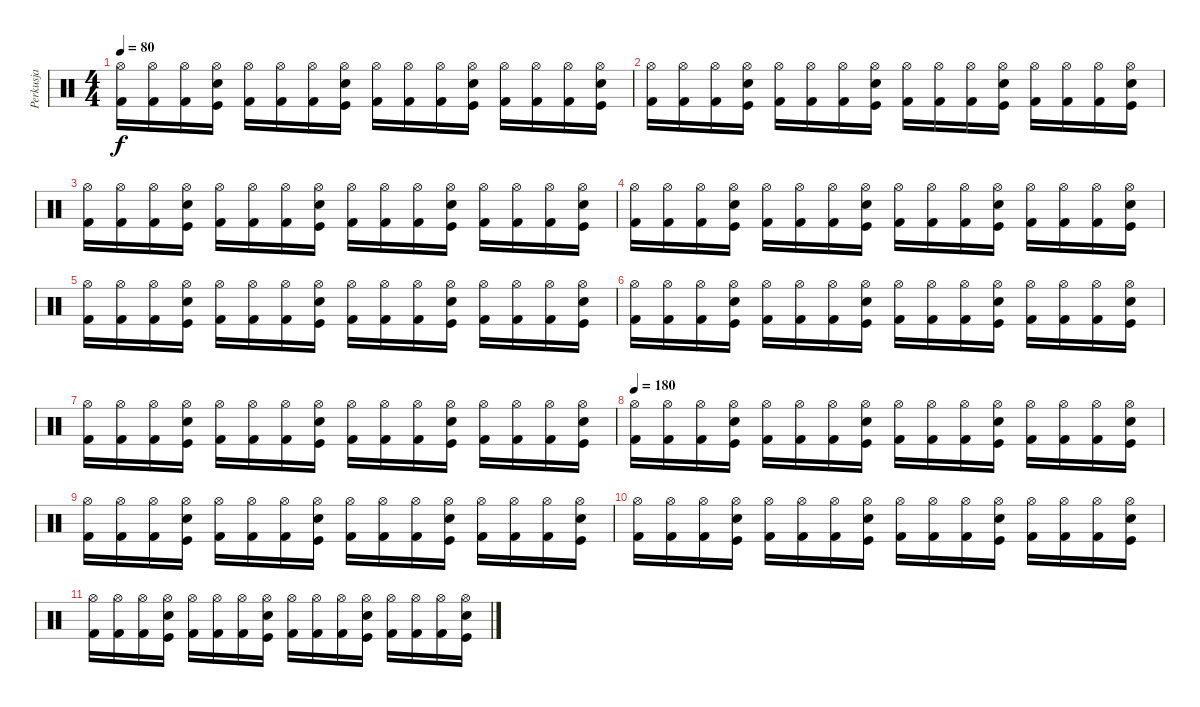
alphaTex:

\track ("Perkusja" "Perkusja") {instrument percussion}
\staff {score}
\articulation defaults
\ts (4 4)
\tempo 80
\clef neutral
\ks c
("Kick (hit) 2" "Hi-Hat (open)").16{dy f} ("Kick (hit) 2" "Hi-Hat (open)").16 ("Kick (hit) 2" "Hi-Hat (open)").16 ("Snare (hit) 2" "Hi-Hat (open)" "Kick (hit)").16 ("Kick (hit) 2" "Hi-Hat (open)").16 ("Kick (hit) 2" "Hi-Hat (open)").16 ("Kick (hit) 2" "Hi-Hat (open)").16 ("Snare (hit) 2" "Hi-Hat (open)" "Kick (hit)").16 ("Kick (hit) 2" "Hi-Hat (open)").16 ("Kick (hit) 2" "Hi-Hat (open)").16 ("Kick (hit) 2" "Hi-Hat (open)").16 ("Snare (hit) 2" "Hi-Hat (open)" "Kick (hit)").16 ("Kick (hit) 2" "Hi-Hat (open)").16 ("Kick (hit) 2" "Hi-Hat (open)").16 ("Kick (hit) 2" "Hi-Hat (open)").16 ("Snare (hit) 2" "Hi-Hat (open)" "Kick (hit)").16 |
("Kick (hit) 2" "Hi-Hat (open)").16 ("Kick (hit) 2" "Hi-Hat (open)").16 ("Kick (hit) 2" "Hi-Hat (open)").16 ("Snare (hit) 2" "Hi-Hat (open)" "Kick (hit)").16 ("Kick (hit) 2" "Hi-Hat (open)").16 ("Kick (hit) 2" "Hi-Hat (open)").16 ("Kick (hit) 2" "Hi-Hat (open)").16 ("Snare (hit) 2" "Hi-Hat (open)" "Kick (hit)").16 ("Kick (hit) 2" "Hi-Hat (open)").16 ("Kick (hit) 2" "Hi-Hat (open)").16 ("Kick (hit) 2" "Hi-Hat (open)").16 ("Snare (hit) 2" "Hi-Hat (open)" "Kick (hit)").16 ("Kick (hit) 2" "Hi-Hat (open)").16 ("Kick (hit) 2" "Hi-Hat (open)").16 ("Kick (hit) 2" "Hi-Hat (open)").16 ("Snare (hit) 2" "Hi-Hat (open)" "Kick (hit)").16 |
("Kick (hit) 2" "Hi-Hat (open)").16 ("Kick (hit) 2" "Hi-Hat (open)").16 ("Kick (hit) 2" "Hi-Hat (open)").16 ("Snare (hit) 2" "Hi-Hat (open)" "Kick (hit)").16 ("Kick (hit) 2" "Hi-Hat (open)").16 ("Kick (hit) 2" "Hi-Hat (open)").16 ("Kick (hit) 2" "Hi-Hat (open)").16 ("Snare (hit) 2" "Hi-Hat (open)" "Kick (hit)").16 ("Kick (hit) 2" "Hi-Hat (open)").16 ("Kick (hit) 2" "Hi-Hat (open)").16 ("Kick (hit) 2" "Hi-Hat (open)").16 ("Snare (hit) 2" "Hi-Hat (open)" "Kick (hit)").16 ("Kick (hit) 2" "Hi-Hat (open)").16 ("Kick (hit) 2" "Hi-Hat (open)").16 ("Kick (hit) 2" "Hi-Hat (open)").16 ("Snare (hit) 2" "Hi-Hat (open)" "Kick (hit)").16 |
("Kick (hit) 2" "Hi-Hat (open)").16 ("Kick (hit) 2" "Hi-Hat (open)").16 ("Kick (hit) 2" "Hi-Hat (open)").16 ("Snare (hit) 2" "Hi-Hat (open)" "Kick (hit)").16 ("Kick (hit) 2" "Hi-Hat (open)").16 ("Kick (hit) 2" "Hi-Hat (open)").16 ("Kick (hit) 2" "Hi-Hat (open)").16 ("Snare (hit) 2" "Hi-Hat (open)" "Kick (hit)").16 ("Kick (hit) 2" "Hi-Hat (open)").16 ("Kick (hit) 2" "Hi-Hat (open)").16 ("Kick (hit) 2" "Hi-Hat (open)").16 ("Snare (hit) 2" "Hi-Hat (open)" "Kick (hit)").16 ("Kick (hit) 2" "Hi-Hat (open)").16 ("Kick (hit) 2" "Hi-Hat (open)").16 ("Kick (hit) 2" "Hi-Hat (open)").16 ("Snare (hit) 2" "Hi-Hat (open)" "Kick (hit)").16 |
("Kick (hit) 2" "Hi-Hat (open)").16 ("Kick (hit) 2" "Hi-Hat (open)").16 ("Kick (hit) 2" "Hi-Hat (open)").16 ("Snare (hit) 2" "Hi-Hat (open)" "Kick (hit)").16 ("Kick (hit) 2" "Hi-Hat (open)").16 ("Kick (hit) 2" "Hi-Hat (open)").16 ("Kick (hit) 2" "Hi-Hat (open)").16 ("Snare (hit) 2" "Hi-Hat (open)" "Kick (hit)").16 ("Kick (hit) 2" "Hi-Hat (open)").16 ("Kick (hit) 2" "Hi-Hat (open)").16 ("Kick (hit) 2" "Hi-Hat (open)").16 ("Snare (hit) 2" "Hi-Hat (open)" "Kick (hit)").16 ("Kick (hit) 2" "Hi-Hat (open)").16 ("Kick (hit) 2" "Hi-Hat (open)").16 ("Kick (hit) 2" "Hi-Hat (open)").16 ("Snare (hit) 2" "Hi-Hat (open)" "Kick (hit)").16 |
("Kick (hit) 2" "Hi-Hat (open)").16 ("Kick (hit) 2" "Hi-Hat (open)").16 ("Kick (hit) 2" "Hi-Hat (open)").16 ("Snare (hit) 2" "Hi-Hat (open)" "Kick (hit)").16 ("Kick (hit) 2" "Hi-Hat (open)").16 ("Kick (hit) 2" "Hi-Hat (open)").16 ("Kick (hit) 2" "Hi-Hat (open)").16 ("Snare (hit) 2" "Hi-Hat (open)" "Kick (hit)").16 ("Kick (hit) 2" "Hi-Hat (open)").16 ("Kick (hit) 2" "Hi-Hat (open)").16 ("Kick (hit) 2" "Hi-Hat (open)").16 ("Snare (hit) 2" "Hi-Hat (open)" "Kick (hit)").16 ("Kick (hit) 2" "Hi-Hat (open)").16 ("Kick (hit) 2" "Hi-Hat (open)").16 ("Kick (hit) 2" "Hi-Hat (open)").16 ("Snare (hit) 2" "Hi-Hat (open)" "Kick (hit)").16 |
("Kick (hit) 2" "Hi-Hat (open)").16 ("Kick (hit) 2" "Hi-Hat (open)").16 ("Kick (hit) 2" "Hi-Hat (open)").16 ("Snare (hit) 2" "Hi-Hat (open)" "Kick (hit)").16 ("Kick (hit) 2" "Hi-Hat (open)").16 ("Kick (hit) 2" "Hi-Hat (open)").16 ("Kick (hit) 2" "Hi-Hat (open)").16 ("Snare (hit) 2" "Hi-Hat (open)" "Kick (hit)").16 ("Kick (hit) 2" "Hi-Hat (open)").16 ("Kick (hit) 2" "Hi-Hat (open)").16 ("Kick (hit) 2" "Hi-Hat (open)").16 ("Snare (hit) 2" "Hi-Hat (open)" "Kick (hit)").16 ("Kick (hit) 2" "Hi-Hat (open)").16 ("Kick (hit) 2" "Hi-Hat (open)").16 ("Kick (hit) 2" "Hi-Hat (open)").16 ("Snare (hit) 2" "Hi-Hat (open)" "Kick (hit)").16 |
\tempo 180
("Kick (hit) 2" "Hi-Hat (open)").16 ("Kick (hit) 2" "Hi-Hat (open)").16 ("Kick (hit) 2" "Hi-Hat (open)").16 ("Snare (hit) 2" "Hi-Hat (open)" "Kick (hit)").16 ("Kick (hit) 2" "Hi-Hat (open)").16 ("Kick (hit) 2" "Hi-Hat (open)").16 ("Kick (hit) 2" "Hi-Hat (open)").16 ("Snare (hit) 2" "Hi-Hat (open)" "Kick (hit)").16 ("Kick (hit) 2" "Hi-Hat (open)").16 ("Kick (hit) 2" "Hi-Hat (open)").16 ("Kick (hit) 2" "Hi-Hat (open)").16 ("Snare (hit) 2" "Hi-Hat (open)" "Kick (hit)").16 ("Kick (hit) 2" "Hi-Hat (open)").16 ("Kick (hit) 2" "Hi-Hat (open)").16 ("Kick (hit) 2" "Hi-Hat (open)").16 ("Snare (hit) 2" "Hi-Hat (open)" "Kick (hit)").16 |
("Kick (hit) 2" "Hi-Hat (open)").16 ("Kick (hit) 2" "Hi-Hat (open)").16 ("Kick (hit) 2" "Hi-Hat (open)").16 ("Snare (hit) 2" "Hi-Hat (open)" "Kick (hit)").16 ("Kick (hit) 2" "Hi-Hat (open)").16 ("Kick (hit) 2" "Hi-Hat (open)").16 ("Kick (hit) 2" "Hi-Hat (open)").16 ("Snare (hit) 2" "Hi-Hat (open)" "Kick (hit)").16 ("Kick (hit) 2" "Hi-Hat (open)").16 ("Kick (hit) 2" "Hi-Hat (open)").16 ("Kick (hit) 2" "Hi-Hat (open)").16 ("Snare (hit) 2" "Hi-Hat (open)" "Kick (hit)").16 ("Kick (hit) 2" "Hi-Hat (open)").16 ("Kick (hit) 2" "Hi-Hat (open)").16 ("Kick (hit) 2" "Hi-Hat (open)").16 ("Snare (hit) 2" "Hi-Hat (open)" "Kick (hit)").16 |
("Kick (hit) 2" "Hi-Hat (open)").16 ("Kick (hit) 2" "Hi-Hat (open)").16 ("Kick (hit) 2" "Hi-Hat (open)").16 ("Snare (hit) 2" "Hi-Hat (open)" "Kick (hit)").16 ("Kick (hit) 2" "Hi-Hat (open)").16 ("Kick (hit) 2" "Hi-Hat (open)").16 ("Kick (hit) 2" "Hi-Hat (open)").16 ("Snare (hit) 2" "Hi-Hat (open)" "Kick (hit)").16 ("Kick (hit) 2" "Hi-Hat (open)").16 ("Kick (hit) 2" "Hi-Hat (open)").16 ("Kick (hit) 2" "Hi-Hat (open)").16 ("Snare (hit) 2" "Hi-Hat (open)" "Kick (hit)").16 ("Kick (hit) 2" "Hi-Hat (open)").16 ("Kick (hit) 2" "Hi-Hat (open)").16 ("Kick (hit) 2" "Hi-Hat (open)").16 ("Snare (hit) 2" "Hi-Hat (open)" "Kick (hit)").16 |
("Kick (hit) 2" "Hi-Hat (open)").16 ("Kick (hit) 2" "Hi-Hat (open)").16 ("Kick (hit) 2" "Hi-Hat (open)").16 ("Snare (hit) 2" "Hi-Hat (open)" "Kick (hit)").16 ("Kick (hit) 2" "Hi-Hat (open)").16 ("Kick (hit) 2" "Hi-Hat (open)").16 ("Kick (hit) 2" "Hi-Hat (open)").16 ("Snare (hit) 2" "Hi-Hat (open)" "Kick (hit)").16 ("Kick (hit) 2" "Hi-Hat (open)").16 ("Kick (hit) 2" "Hi-Hat (open)").16 ("Kick (hit) 2" "Hi-Hat (open)").16 ("Snare (hit) 2" "Hi-Hat (open)" "Kick (hit)").16 ("Kick (hit) 2" "Hi-Hat (open)").16 ("Kick (hit) 2" "Hi-Hat (open)").16 ("Kick (hit) 2" "Hi-Hat (open)").16 ("Snare (hit) 2" "Hi-Hat (open)" "Kick (hit)").16
